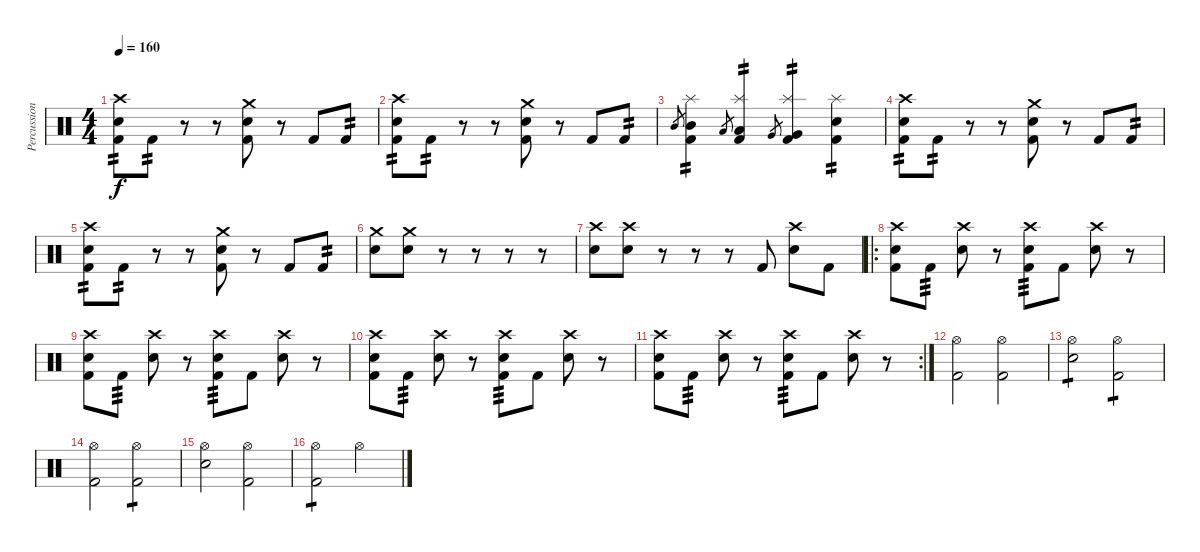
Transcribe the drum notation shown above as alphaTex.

\track ("Percussion" "Percussion") {instrument percussion}
\staff {score}
\articulation defaults
\ts (4 4)
\tempo 160
\clef neutral
\ks c
("Crash high (hit)" "Snare (hit) 2" "Kick (hit) 2").8{tp 2 dy f} "Kick (hit) 2".8{tp 2} r.8 r.8 ("Crash medium (hit)" "Snare (hit) 2" "Kick (hit) 2").8 r.8 "Kick (hit) 2".8 "Kick (hit) 2".8{tp 2} |
("Crash high (hit)" "Snare (hit) 2" "Kick (hit) 2").8{tp 2} "Kick (hit) 2".8{tp 2} r.8 r.8 ("Crash medium (hit)" "Snare (hit) 2" "Kick (hit) 2").8 r.8 "Kick (hit) 2".8 "Kick (hit) 2".8{tp 2} |
"Mid Tom (hit)".8{gr} ("Splash (hit)" "Kick (hit) 2" "Mid Tom (hit)").4{tp 2} "Low Tom (hit)".8{gr} ("Splash (hit)" "Kick (hit) 2" "Low Tom (hit)").4{tp 2} "Very Low Tom (hit)".8{gr} ("Splash (hit)" "Kick (hit) 2" "Very Low Tom (hit)").4{tp 2} ("Splash (hit)" "Snare (hit) 2" "Kick (hit) 2").4{tp 2} |
("Crash high (hit)" "Snare (hit) 2" "Kick (hit) 2").8{tp 2} "Kick (hit) 2".8{tp 2} r.8 r.8 ("Crash medium (hit)" "Snare (hit) 2" "Kick (hit) 2").8 r.8 "Kick (hit) 2".8 "Kick (hit) 2".8{tp 2} |
("Crash high (hit)" "Snare (hit) 2" "Kick (hit) 2").8{tp 2} "Kick (hit) 2".8{tp 2} r.8 r.8 ("Crash medium (hit)" "Snare (hit) 2" "Kick (hit) 2").8 r.8 "Kick (hit) 2".8 "Kick (hit) 2".8{tp 2} |
("Crash medium (hit)" "Snare (hit) 2").8 ("Crash medium (hit)" "Snare (hit) 2").8 r.8 r.8 r.8 r.8 |
("Crash high (hit)" "Snare (hit) 2").8 ("Crash high (hit)" "Snare (hit) 2").8 r.8 r.8 r.8 "Kick (hit) 2".8 ("Crash high (hit)" "Snare (hit) 2").8 "Kick (hit) 2".8 |
\ro
("Crash high (hit)" "Snare (hit) 2" "Kick (hit) 2").8 "Kick (hit) 2".8{tp 3} ("Crash high (hit)" "Snare (hit) 2").8 r.8 ("Crash high (hit)" "Snare (hit) 2" "Kick (hit) 2").8{tp 3} "Kick (hit) 2".8 ("Crash high (hit)" "Snare (hit) 2").8 r.8 |
("Crash high (hit)" "Snare (hit) 2" "Kick (hit) 2").8 "Kick (hit) 2".8{tp 3} ("Crash high (hit)" "Snare (hit) 2").8 r.8 ("Crash high (hit)" "Snare (hit) 2" "Kick (hit) 2").8{tp 3} "Kick (hit) 2".8 ("Crash high (hit)" "Snare (hit) 2").8 r.8 |
("Crash high (hit)" "Snare (hit) 2" "Kick (hit) 2").8 "Kick (hit) 2".8{tp 3} ("Crash high (hit)" "Snare (hit) 2").8 r.8 ("Crash high (hit)" "Snare (hit) 2" "Kick (hit) 2").8{tp 3} "Kick (hit) 2".8 ("Crash high (hit)" "Snare (hit) 2").8 r.8 |
\rc 2
("Crash high (hit)" "Snare (hit) 2" "Kick (hit) 2").8 "Kick (hit) 2".8{tp 3} ("Crash high (hit)" "Snare (hit) 2").8 r.8 ("Crash high (hit)" "Snare (hit) 2" "Kick (hit) 2").8{tp 3} "Kick (hit) 2".8 ("Crash high (hit)" "Snare (hit) 2").8 r.8 |
("Hi-Hat (open)" "Kick (hit) 2").2 ("Hi-Hat (open)" "Kick (hit) 2").2 |
("Hi-Hat (open)" "Snare (hit) 2").2{tp 1} ("Hi-Hat (open)" "Kick (hit) 2").2{tp 1} |
("Hi-Hat (open)" "Kick (hit) 2").2 ("Hi-Hat (open)" "Kick (hit) 2").2{tp 1} |
("Hi-Hat (open)" "Snare (hit) 2").2 ("Hi-Hat (open)" "Kick (hit) 2").2 |
("Kick (hit) 2" "Hi-Hat (open)").2{tp 1} "Hi-Hat (open)".2
